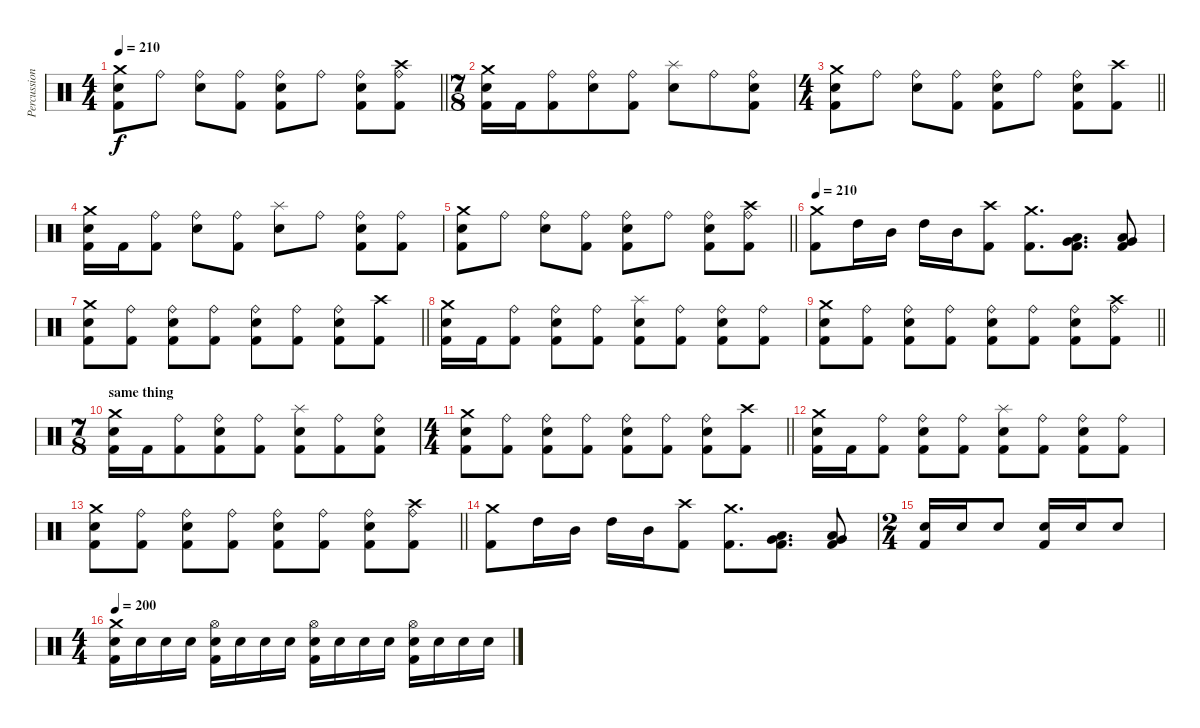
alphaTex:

\track ("Percussions" "Percussion") {instrument percussion}
\staff {score}
\articulation defaults
\ts (4 4)
\tempo 210
\clef neutral
\barLineRight lightlight
\ks c
("Crash medium (hit)" "Electric Snare (hit)" "Kick (hit) 2").8{dy f} "Ride (bell)".8 ("Ride (bell)" "Electric Snare (hit)").8 ("Ride (bell)" "Kick (hit) 2").8 ("Ride (bell)" "Electric Snare (hit)" "Kick (hit) 2").8 "Ride (bell)".8 ("Ride (bell)" "Electric Snare (hit)" "Kick (hit) 2").8 ("Crash high (hit)" "Ride (bell)" "Kick (hit) 2").8 |
\ts (7 8)
\section ("" "")
("Crash medium (hit)" "Electric Snare (hit)" "Kick (hit) 2").16 "Kick (hit) 2".16 ("Ride (bell)" "Kick (hit) 2").8 ("Ride (bell)" "Electric Snare (hit)").8 ("Ride (bell)" "Kick (hit) 2").8 ("Splash (hit)" "Electric Snare (hit)").8 "Ride (bell)".8 ("Ride (bell)" "Electric Snare (hit)" "Kick (hit) 2").8 |
\ts (4 4)
\barLineRight lightlight
("Crash medium (hit)" "Electric Snare (hit)" "Kick (hit) 2").8 "Ride (bell)".8 ("Ride (bell)" "Electric Snare (hit)").8 ("Ride (bell)" "Kick (hit) 2").8 ("Ride (bell)" "Electric Snare (hit)" "Kick (hit) 2").8 "Ride (bell)".8 ("Ride (bell)" "Electric Snare (hit)" "Kick (hit) 2").8 ("Crash high (hit)" "Kick (hit) 2").8 |
("Crash medium (hit)" "Electric Snare (hit)" "Kick (hit) 2").16 "Kick (hit) 2".16 ("Ride (bell)" "Kick (hit) 2").8 ("Ride (bell)" "Electric Snare (hit)").8 ("Ride (bell)" "Kick (hit) 2").8 ("Splash (hit)" "Electric Snare (hit)").8 "Ride (bell)".8 ("Ride (bell)" "Electric Snare (hit)" "Kick (hit) 2").8 ("Ride (bell)" "Kick (hit) 2").8 |
\barLineRight lightlight
("Crash medium (hit)" "Electric Snare (hit)" "Kick (hit) 2").8 "Ride (bell)".8 ("Ride (bell)" "Electric Snare (hit)").8 ("Ride (bell)" "Kick (hit) 2").8 ("Ride (bell)" "Electric Snare (hit)" "Kick (hit) 2").8 "Ride (bell)".8 ("Ride (bell)" "Electric Snare (hit)" "Kick (hit) 2").8 ("Crash high (hit)" "Ride (bell)" "Kick (hit) 2").8 |
\tempo 210
("Crash medium (hit)" "Kick (hit) 2").8 "High Tom (hit)".16 "Mid Tom (hit)".16 "High Tom (hit)".16 "Mid Tom (hit)".16 ("Crash high (hit)" "Kick (hit) 2").8 ("Crash medium (hit)" "Kick (hit) 2").8{d} ("Low Tom (hit)" "Very Low Tom (hit)" "Kick (hit) 2").8{d} ("Very Low Tom (hit)" "Low Floor Tom (hit)" "Kick (hit) 2").8 |
\barLineRight lightlight
("Crash medium (hit)" "Electric Snare (hit)" "Kick (hit) 2").8 ("Ride (bell)" "Kick (hit) 2").8 ("Ride (bell)" "Electric Snare (hit)" "Kick (hit) 2").8 ("Ride (bell)" "Kick (hit) 2").8 ("Ride (bell)" "Electric Snare (hit)" "Kick (hit) 2").8 ("Ride (bell)" "Kick (hit) 2").8 ("Ride (bell)" "Electric Snare (hit)" "Kick (hit) 2").8 ("Crash high (hit)" "Kick (hit) 2").8 |
("Crash medium (hit)" "Electric Snare (hit)" "Kick (hit) 2").16 "Kick (hit) 2".16 ("Ride (bell)" "Kick (hit) 2").8 ("Ride (bell)" "Electric Snare (hit)" "Kick (hit) 2").8 ("Ride (bell)" "Kick (hit) 2").8 ("Splash (hit)" "Electric Snare (hit)" "Kick (hit) 2").8 ("Ride (bell)" "Kick (hit) 2").8 ("Ride (bell)" "Electric Snare (hit)" "Kick (hit) 2").8 ("Ride (bell)" "Kick (hit) 2").8 |
\barLineRight lightlight
("Crash medium (hit)" "Electric Snare (hit)" "Kick (hit) 2").8 ("Ride (bell)" "Kick (hit) 2").8 ("Ride (bell)" "Electric Snare (hit)" "Kick (hit) 2").8 ("Ride (bell)" "Kick (hit) 2").8 ("Ride (bell)" "Electric Snare (hit)" "Kick (hit) 2").8 ("Ride (bell)" "Kick (hit) 2").8 ("Ride (bell)" "Electric Snare (hit)" "Kick (hit) 2").8 ("Crash high (hit)" "Ride (bell)" "Kick (hit) 2").8 |
\ts (7 8)
\section ("" "same thing")
("Crash medium (hit)" "Electric Snare (hit)" "Kick (hit) 2").16 "Kick (hit) 2".16 ("Ride (bell)" "Kick (hit) 2").8 ("Ride (bell)" "Electric Snare (hit)" "Kick (hit) 2").8 ("Ride (bell)" "Kick (hit) 2").8 ("Splash (hit)" "Electric Snare (hit)" "Kick (hit) 2").8 ("Ride (bell)" "Kick (hit) 2").8 ("Ride (bell)" "Electric Snare (hit)" "Kick (hit) 2").8 |
\ts (4 4)
\barLineRight lightlight
("Crash medium (hit)" "Electric Snare (hit)" "Kick (hit) 2").8 ("Ride (bell)" "Kick (hit) 2").8 ("Ride (bell)" "Electric Snare (hit)" "Kick (hit) 2").8 ("Ride (bell)" "Kick (hit) 2").8 ("Ride (bell)" "Electric Snare (hit)" "Kick (hit) 2").8 ("Ride (bell)" "Kick (hit) 2").8 ("Ride (bell)" "Electric Snare (hit)" "Kick (hit) 2").8 ("Crash high (hit)" "Kick (hit) 2").8 |
("Crash medium (hit)" "Electric Snare (hit)" "Kick (hit) 2").16 "Kick (hit) 2".16 ("Ride (bell)" "Kick (hit) 2").8 ("Ride (bell)" "Electric Snare (hit)" "Kick (hit) 2").8 ("Ride (bell)" "Kick (hit) 2").8 ("Splash (hit)" "Electric Snare (hit)" "Kick (hit) 2").8 ("Ride (bell)" "Kick (hit) 2").8 ("Ride (bell)" "Electric Snare (hit)" "Kick (hit) 2").8 ("Ride (bell)" "Kick (hit) 2").8 |
\barLineRight lightlight
("Crash medium (hit)" "Electric Snare (hit)" "Kick (hit) 2").8 ("Ride (bell)" "Kick (hit) 2").8 ("Ride (bell)" "Electric Snare (hit)" "Kick (hit) 2").8 ("Ride (bell)" "Kick (hit) 2").8 ("Ride (bell)" "Electric Snare (hit)" "Kick (hit) 2").8 ("Ride (bell)" "Kick (hit) 2").8 ("Ride (bell)" "Electric Snare (hit)" "Kick (hit) 2").8 ("Crash high (hit)" "Ride (bell)" "Kick (hit) 2").8 |
("Crash medium (hit)" "Kick (hit) 2").8 "High Tom (hit)".16 "Mid Tom (hit)".16 "High Tom (hit)".16 "Mid Tom (hit)".16 ("Crash high (hit)" "Kick (hit) 2").8 ("Crash medium (hit)" "Kick (hit) 2").8{d} ("Low Tom (hit)" "Very Low Tom (hit)" "Kick (hit) 2").8{d} ("Very Low Tom (hit)" "Low Floor Tom (hit)" "Kick (hit) 2").8 |
\ts (2 4)
("Electric Snare (hit)" "Kick (hit) 2").16 "Electric Snare (hit)".16 "Electric Snare (hit)".8 ("Electric Snare (hit)" "Kick (hit) 2").16 "Electric Snare (hit)".16 "Electric Snare (hit)".8 |
\ts (4 4)
\tempo 200
("Crash medium (hit)" "Electric Snare (hit)" "Kick (hit) 2").16 "Electric Snare (hit)".16 "Electric Snare (hit)".16 "Electric Snare (hit)".16 ("Hi-Hat (open)" "Electric Snare (hit)" "Kick (hit) 2").16 "Electric Snare (hit)".16 "Electric Snare (hit)".16 "Electric Snare (hit)".16 ("Hi-Hat (open)" "Electric Snare (hit)" "Kick (hit) 2").16 "Electric Snare (hit)".16 "Electric Snare (hit)".16 "Electric Snare (hit)".16 ("Hi-Hat (open)" "Electric Snare (hit)" "Kick (hit) 2").16 "Electric Snare (hit)".16 "Electric Snare (hit)".16 "Electric Snare (hit)".16
